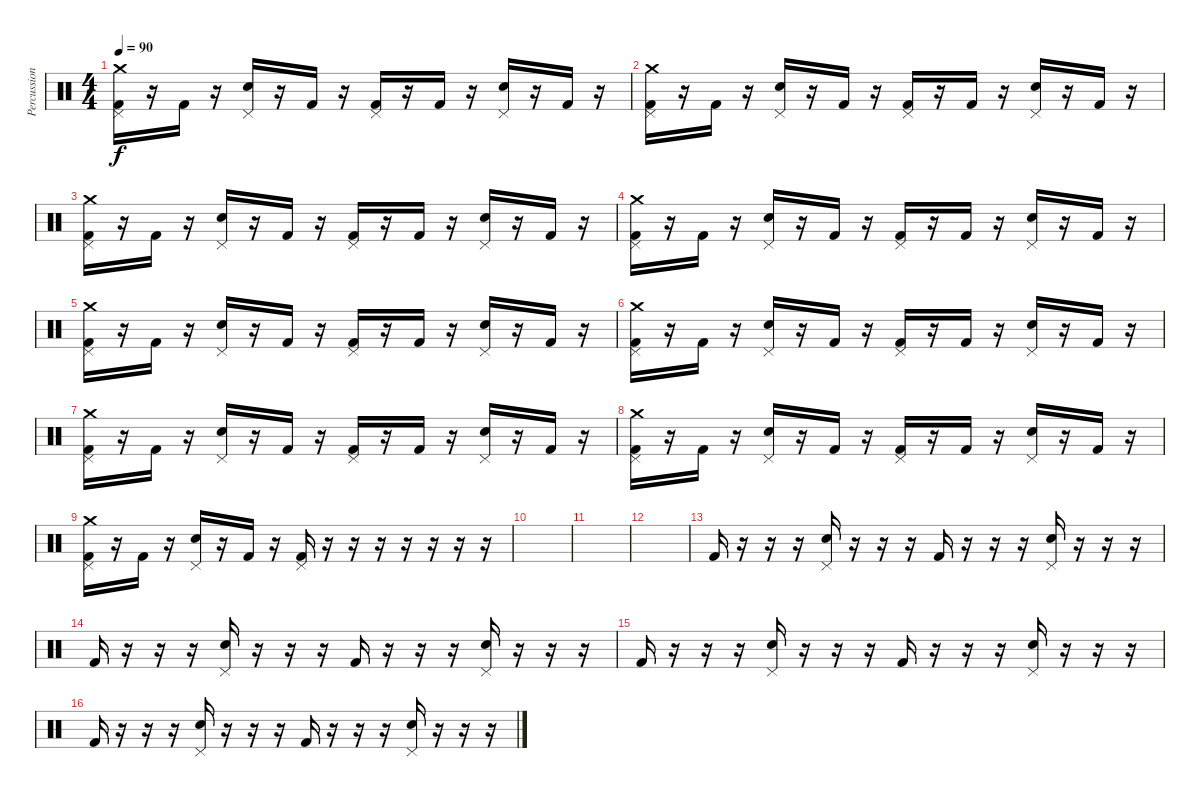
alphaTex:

\track ("Percussion" "Percussion") {instrument percussion}
\staff {score}
\articulation defaults
\ts (4 4)
\tempo 90
\clef neutral
\ks c
("Crash medium (hit)" "Pedal Hi-Hat (hit)" "Kick (hit) 2").16{dy f} r.16 "Kick (hit) 2".16 r.16 ("Pedal Hi-Hat (hit)" "Snare (hit) 2").16 r.16 "Kick (hit) 2".16 r.16 ("Pedal Hi-Hat (hit)" "Kick (hit) 2").16 r.16 "Kick (hit) 2".16 r.16 ("Pedal Hi-Hat (hit)" "Snare (hit) 2").16 r.16 "Kick (hit) 2".16 r.16 |
("Crash medium (hit)" "Pedal Hi-Hat (hit)" "Kick (hit) 2").16 r.16 "Kick (hit) 2".16 r.16 ("Pedal Hi-Hat (hit)" "Snare (hit) 2").16 r.16 "Kick (hit) 2".16 r.16 ("Pedal Hi-Hat (hit)" "Kick (hit) 2").16 r.16 "Kick (hit) 2".16 r.16 ("Pedal Hi-Hat (hit)" "Snare (hit) 2").16 r.16 "Kick (hit) 2".16 r.16 |
("Crash medium (hit)" "Pedal Hi-Hat (hit)" "Kick (hit) 2").16 r.16 "Kick (hit) 2".16 r.16 ("Pedal Hi-Hat (hit)" "Snare (hit) 2").16 r.16 "Kick (hit) 2".16 r.16 ("Pedal Hi-Hat (hit)" "Kick (hit) 2").16 r.16 "Kick (hit) 2".16 r.16 ("Pedal Hi-Hat (hit)" "Snare (hit) 2").16 r.16 "Kick (hit) 2".16 r.16 |
("Crash medium (hit)" "Pedal Hi-Hat (hit)" "Kick (hit) 2").16 r.16 "Kick (hit) 2".16 r.16 ("Pedal Hi-Hat (hit)" "Snare (hit) 2").16 r.16 "Kick (hit) 2".16 r.16 ("Pedal Hi-Hat (hit)" "Kick (hit) 2").16 r.16 "Kick (hit) 2".16 r.16 ("Pedal Hi-Hat (hit)" "Snare (hit) 2").16 r.16 "Kick (hit) 2".16 r.16 |
("Crash medium (hit)" "Pedal Hi-Hat (hit)" "Kick (hit) 2").16 r.16 "Kick (hit) 2".16 r.16 ("Pedal Hi-Hat (hit)" "Snare (hit) 2").16 r.16 "Kick (hit) 2".16 r.16 ("Pedal Hi-Hat (hit)" "Kick (hit) 2").16 r.16 "Kick (hit) 2".16 r.16 ("Pedal Hi-Hat (hit)" "Snare (hit) 2").16 r.16 "Kick (hit) 2".16 r.16 |
("Crash medium (hit)" "Pedal Hi-Hat (hit)" "Kick (hit) 2").16 r.16 "Kick (hit) 2".16 r.16 ("Pedal Hi-Hat (hit)" "Snare (hit) 2").16 r.16 "Kick (hit) 2".16 r.16 ("Pedal Hi-Hat (hit)" "Kick (hit) 2").16 r.16 "Kick (hit) 2".16 r.16 ("Pedal Hi-Hat (hit)" "Snare (hit) 2").16 r.16 "Kick (hit) 2".16 r.16 |
("Crash medium (hit)" "Pedal Hi-Hat (hit)" "Kick (hit) 2").16 r.16 "Kick (hit) 2".16 r.16 ("Pedal Hi-Hat (hit)" "Snare (hit) 2").16 r.16 "Kick (hit) 2".16 r.16 ("Pedal Hi-Hat (hit)" "Kick (hit) 2").16 r.16 "Kick (hit) 2".16 r.16 ("Pedal Hi-Hat (hit)" "Snare (hit) 2").16 r.16 "Kick (hit) 2".16 r.16 |
("Crash medium (hit)" "Pedal Hi-Hat (hit)" "Kick (hit) 2").16 r.16 "Kick (hit) 2".16 r.16 ("Pedal Hi-Hat (hit)" "Snare (hit) 2").16 r.16 "Kick (hit) 2".16 r.16 ("Pedal Hi-Hat (hit)" "Kick (hit) 2").16 r.16 "Kick (hit) 2".16 r.16 ("Pedal Hi-Hat (hit)" "Snare (hit) 2").16 r.16 "Kick (hit) 2".16 r.16 |
("Crash medium (hit)" "Pedal Hi-Hat (hit)" "Kick (hit) 2").16 r.16 "Kick (hit) 2".16 r.16 ("Pedal Hi-Hat (hit)" "Snare (hit) 2").16 r.16 "Kick (hit) 2".16 r.16 ("Pedal Hi-Hat (hit)" "Kick (hit) 2").16 r.16 r.16 r.16 r.16 r.16 r.16 r.16 |
|
|
|
"Kick (hit) 2".16{volume 8} r.16 r.16 r.16 ("Pedal Hi-Hat (hit)" "Snare (hit) 2").16 r.16 r.16 r.16 "Kick (hit) 2".16 r.16 r.16 r.16 ("Pedal Hi-Hat (hit)" "Snare (hit) 2").16 r.16 r.16 r.16 |
"Kick (hit) 2".16 r.16 r.16 r.16 ("Pedal Hi-Hat (hit)" "Snare (hit) 2").16 r.16 r.16 r.16 "Kick (hit) 2".16 r.16 r.16 r.16 ("Pedal Hi-Hat (hit)" "Snare (hit) 2").16 r.16 r.16 r.16 |
"Kick (hit) 2".16{volume 0} r.16 r.16 r.16 ("Pedal Hi-Hat (hit)" "Snare (hit) 2").16 r.16 r.16 r.16 "Kick (hit) 2".16 r.16 r.16 r.16 ("Pedal Hi-Hat (hit)" "Snare (hit) 2").16 r.16 r.16 r.16 |
"Kick (hit) 2".16 r.16 r.16 r.16 ("Pedal Hi-Hat (hit)" "Snare (hit) 2").16 r.16 r.16 r.16 "Kick (hit) 2".16 r.16 r.16 r.16 ("Pedal Hi-Hat (hit)" "Snare (hit) 2").16 r.16 r.16 r.16
